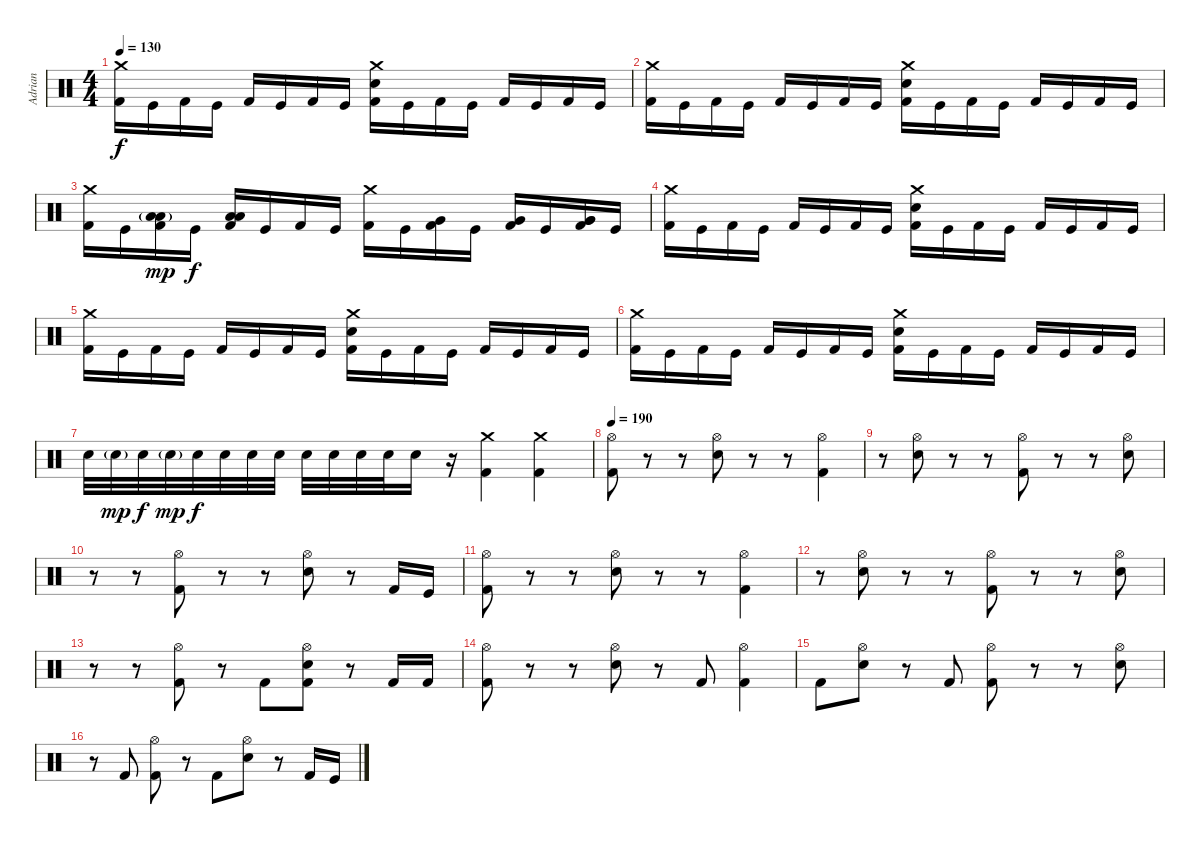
\track ("Adrian" "Adrian") {instrument percussion}
\staff {score}
\articulation defaults
\ts (4 4)
\tempo 130
\clef neutral
\ks c
("Crash medium (hit)" "Kick (hit) 2").16{dy f} "Kick (hit)".16 "Kick (hit) 2".16 "Kick (hit)".16 "Kick (hit) 2".16 "Kick (hit)".16 "Kick (hit) 2".16 "Kick (hit)".16 ("Crash medium (hit)" "Electric Snare (hit)" "Kick (hit) 2").16 "Kick (hit)".16 "Kick (hit) 2".16 "Kick (hit)".16 "Kick (hit) 2".16 "Kick (hit)".16 "Kick (hit) 2".16 "Kick (hit)".16 |
("Crash medium (hit)" "Kick (hit) 2").16 "Kick (hit)".16 "Kick (hit) 2".16 "Kick (hit)".16 "Kick (hit) 2".16 "Kick (hit)".16 "Kick (hit) 2".16 "Kick (hit)".16 ("Crash medium (hit)" "Electric Snare (hit)" "Kick (hit) 2").16 "Kick (hit)".16 "Kick (hit) 2".16 "Kick (hit)".16 "Kick (hit) 2".16 "Kick (hit)".16 "Kick (hit) 2".16 "Kick (hit)".16 |
("Crash medium (hit)" "Kick (hit) 2").16 "Kick (hit)".16 ("Low Tom (hit)"{g} "Low Tom (hit)" "Kick (hit) 2").16{dy mp} "Kick (hit)".16{dy f} ("Low Tom (hit)" "Low Tom (hit)" "Kick (hit) 2").16 "Kick (hit)".16 "Kick (hit) 2".16 "Kick (hit)".16 ("Crash medium (hit)" "Kick (hit) 2").16 "Kick (hit)".16 ("Very Low Tom (hit)" "Kick (hit) 2").16 "Kick (hit)".16 ("Very Low Tom (hit)" "Kick (hit) 2").16 "Kick (hit)".16 ("Very Low Tom (hit)" "Very Low Tom (hit)" "Kick (hit) 2").16 "Kick (hit)".16 |
("Crash medium (hit)" "Kick (hit) 2").16 "Kick (hit)".16 "Kick (hit) 2".16 "Kick (hit)".16 "Kick (hit) 2".16 "Kick (hit)".16 "Kick (hit) 2".16 "Kick (hit)".16 ("Crash medium (hit)" "Electric Snare (hit)" "Kick (hit) 2").16 "Kick (hit)".16 "Kick (hit) 2".16 "Kick (hit)".16 "Kick (hit) 2".16 "Kick (hit)".16 "Kick (hit) 2".16 "Kick (hit)".16 |
("Crash medium (hit)" "Kick (hit) 2").16 "Kick (hit)".16 "Kick (hit) 2".16 "Kick (hit)".16 "Kick (hit) 2".16 "Kick (hit)".16 "Kick (hit) 2".16 "Kick (hit)".16 ("Crash medium (hit)" "Electric Snare (hit)" "Kick (hit) 2").16 "Kick (hit)".16 "Kick (hit) 2".16 "Kick (hit)".16 "Kick (hit) 2".16 "Kick (hit)".16 "Kick (hit) 2".16 "Kick (hit)".16 |
("Crash medium (hit)" "Kick (hit) 2").16 "Kick (hit)".16 "Kick (hit) 2".16 "Kick (hit)".16 "Kick (hit) 2".16 "Kick (hit)".16 "Kick (hit) 2".16 "Kick (hit)".16 ("Crash medium (hit)" "Electric Snare (hit)" "Kick (hit) 2").16 "Kick (hit)".16 "Kick (hit) 2".16 "Kick (hit)".16 "Kick (hit) 2".16 "Kick (hit)".16 "Kick (hit) 2".16 "Kick (hit)".16 |
"Electric Snare (hit)".32 "Electric Snare (hit)"{g}.32{dy mp} "Electric Snare (hit)".32{dy f} "Electric Snare (hit)"{g}.32{dy mp} "Electric Snare (hit)".32{dy f} "Electric Snare (hit)".32 "Electric Snare (hit)".32 "Electric Snare (hit)".32 "Electric Snare (hit)".32 "Electric Snare (hit)".32 "Electric Snare (hit)".32 "Electric Snare (hit)".32 "Electric Snare (hit)".16 r.16 ("Crash medium (hit)" "Kick (hit) 2").4 ("Crash medium (hit)" "Kick (hit) 2").4 |
\tempo 190
("Hi-Hat (open)" "Kick (hit) 2").8 r.8 r.8 ("Hi-Hat (open)" "Electric Snare (hit)").8 r.8 r.8 ("Hi-Hat (open)" "Kick (hit) 2").4 |
r.8 ("Hi-Hat (open)" "Electric Snare (hit)").8 r.8 r.8 ("Hi-Hat (open)" "Kick (hit) 2").8 r.8 r.8 ("Hi-Hat (open)" "Electric Snare (hit)").8 |
r.8 r.8 ("Hi-Hat (open)" "Kick (hit) 2").8 r.8 r.8 ("Hi-Hat (open)" "Electric Snare (hit)").8 r.8 "Kick (hit) 2".16 "Kick (hit)".16 |
("Hi-Hat (open)" "Kick (hit) 2").8 r.8 r.8 ("Hi-Hat (open)" "Electric Snare (hit)").8 r.8 r.8 ("Hi-Hat (open)" "Kick (hit) 2").4 |
r.8 ("Hi-Hat (open)" "Electric Snare (hit)").8 r.8 r.8 ("Hi-Hat (open)" "Kick (hit) 2").8 r.8 r.8 ("Hi-Hat (open)" "Electric Snare (hit)").8 |
r.8 r.8 ("Hi-Hat (open)" "Kick (hit) 2").8 r.8 "Kick (hit) 2".8 ("Hi-Hat (open)" "Electric Snare (hit)" "Kick (hit) 2").8 r.8 "Kick (hit) 2".16 "Kick (hit) 2".16 |
("Hi-Hat (open)" "Kick (hit) 2").8 r.8 r.8 ("Hi-Hat (open)" "Electric Snare (hit)").8 r.8 "Kick (hit) 2".8 ("Hi-Hat (open)" "Kick (hit) 2").4 |
"Kick (hit) 2".8 ("Hi-Hat (open)" "Electric Snare (hit)").8 r.8 "Kick (hit) 2".8 ("Hi-Hat (open)" "Kick (hit) 2").8 r.8 r.8 ("Hi-Hat (open)" "Electric Snare (hit)").8 |
r.8 "Kick (hit) 2".8 ("Hi-Hat (open)" "Kick (hit) 2").8 r.8 "Kick (hit) 2".8 ("Hi-Hat (open)" "Electric Snare (hit)").8 r.8 "Kick (hit) 2".16 "Kick (hit)".16
